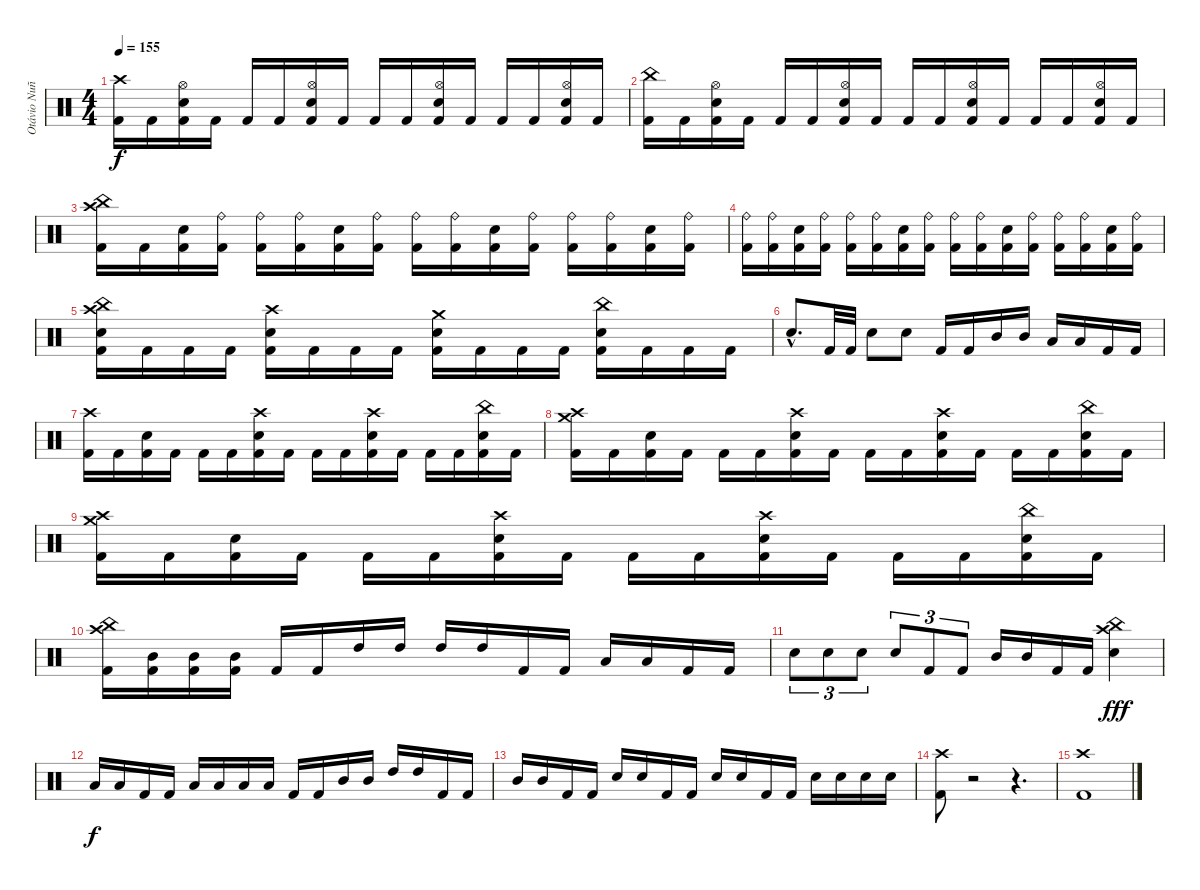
\track ("Otávio Nuñez" "Otávio Nuñ") {instrument percussion}
\staff {score}
\articulation defaults
\ts (4 4)
\tempo 155
\clef neutral
\ks c
("Crash high (hit)" "Kick (hit) 2").16{dy f} "Kick (hit) 2".16 ("Hi-Hat (open)" "Electric Snare (hit)" "Kick (hit) 2").16 "Kick (hit) 2".16 "Kick (hit) 2".16 "Kick (hit) 2".16 ("Hi-Hat (open)" "Electric Snare (hit)" "Kick (hit) 2").16 "Kick (hit) 2".16 "Kick (hit) 2".16 "Kick (hit) 2".16 ("Hi-Hat (open)" "Electric Snare (hit)" "Kick (hit) 2").16 "Kick (hit) 2".16 "Kick (hit) 2".16 "Kick (hit) 2".16 ("Hi-Hat (open)" "Electric Snare (hit)" "Kick (hit) 2").16 "Kick (hit) 2".16 |
("China (hit)" "Kick (hit) 2").16 "Kick (hit) 2".16 ("Hi-Hat (open)" "Electric Snare (hit)" "Kick (hit) 2").16 "Kick (hit) 2".16 "Kick (hit) 2".16 "Kick (hit) 2".16 ("Hi-Hat (open)" "Electric Snare (hit)" "Kick (hit) 2").16 "Kick (hit) 2".16 "Kick (hit) 2".16 "Kick (hit) 2".16 ("Hi-Hat (open)" "Electric Snare (hit)" "Kick (hit) 2").16 "Kick (hit) 2".16 "Kick (hit) 2".16 "Kick (hit) 2".16 ("Hi-Hat (open)" "Electric Snare (hit)" "Kick (hit) 2").16 "Kick (hit) 2".16 |
("China (hit)" "Crash high (hit)" "Kick (hit) 2").16 "Kick (hit) 2".16 ("Electric Snare (hit)" "Kick (hit) 2").16 ("Ride (bell)" "Kick (hit) 2").16 ("Ride (bell)" "Kick (hit) 2").16 ("Ride (bell)" "Kick (hit) 2").16 ("Electric Snare (hit)" "Kick (hit) 2").16 ("Ride (bell)" "Kick (hit) 2").16 ("Ride (bell)" "Kick (hit) 2").16 ("Ride (bell)" "Kick (hit) 2").16 ("Electric Snare (hit)" "Kick (hit) 2").16 ("Ride (bell)" "Kick (hit) 2").16 ("Ride (bell)" "Kick (hit) 2").16 ("Ride (bell)" "Kick (hit) 2").16 ("Electric Snare (hit)" "Kick (hit) 2").16 ("Ride (bell)" "Kick (hit) 2").16 |
("Ride (bell)" "Kick (hit) 2").16 ("Ride (bell)" "Kick (hit) 2").16 ("Electric Snare (hit)" "Kick (hit) 2").16 ("Ride (bell)" "Kick (hit) 2").16 ("Ride (bell)" "Kick (hit) 2").16 ("Ride (bell)" "Kick (hit) 2").16 ("Electric Snare (hit)" "Kick (hit) 2").16 ("Ride (bell)" "Kick (hit) 2").16 ("Ride (bell)" "Kick (hit) 2").16 ("Ride (bell)" "Kick (hit) 2").16 ("Electric Snare (hit)" "Kick (hit) 2").16 ("Ride (bell)" "Kick (hit) 2").16 ("Ride (bell)" "Kick (hit) 2").16 ("Ride (bell)" "Kick (hit) 2").16 ("Electric Snare (hit)" "Kick (hit) 2").16 ("Ride (bell)" "Kick (hit) 2").16 |
("Crash high (hit)" "China (hit)" "Electric Snare (hit)" "Kick (hit) 2").16 "Kick (hit) 2".16 "Kick (hit) 2".16 "Kick (hit) 2".16 ("Crash high (hit)" "Electric Snare (hit)" "Kick (hit) 2").16 "Kick (hit) 2".16 "Kick (hit) 2".16 "Kick (hit) 2".16 ("Crash medium (hit)" "Electric Snare (hit)" "Kick (hit) 2").16 "Kick (hit) 2".16 "Kick (hit) 2".16 "Kick (hit) 2".16 ("China (hit)" "Electric Snare (hit)" "Kick (hit) 2").16 "Kick (hit) 2".16 "Kick (hit) 2".16 "Kick (hit) 2".16 |
"Electric Snare (hit)"{hac}.8{d} "Kick (hit) 2".32 "Kick (hit) 2".32 "Electric Snare (hit)".8 "Electric Snare (hit)".8 "Kick (hit) 2".16 "Kick (hit) 2".16 "Mid Tom (hit)".16 "Mid Tom (hit)".16 "Low Tom (hit)".16 "Low Tom (hit)".16 "Kick (hit) 2".16 "Kick (hit) 2".16 |
("Crash high (hit)" "Kick (hit) 2").16 "Kick (hit) 2".16 ("Electric Snare (hit)" "Kick (hit) 2").16 "Kick (hit) 2".16 "Kick (hit) 2".16 "Kick (hit) 2".16 ("Crash high (hit)" "Electric Snare (hit)" "Kick (hit) 2").16 "Kick (hit) 2".16 "Kick (hit) 2".16 "Kick (hit) 2".16 ("Crash high (hit)" "Electric Snare (hit)" "Kick (hit) 2").16 "Kick (hit) 2".16 "Kick (hit) 2".16 "Kick (hit) 2".16 ("China (hit)" "Electric Snare (hit)" "Kick (hit) 2").16 "Kick (hit) 2".16 |
("Crash high (hit)" "Crash medium (hit)" "Kick (hit) 2").16 "Kick (hit) 2".16 ("Electric Snare (hit)" "Kick (hit) 2").16 "Kick (hit) 2".16 "Kick (hit) 2".16 "Kick (hit) 2".16 ("Crash high (hit)" "Electric Snare (hit)" "Kick (hit) 2").16 "Kick (hit) 2".16 "Kick (hit) 2".16 "Kick (hit) 2".16 ("Crash high (hit)" "Electric Snare (hit)" "Kick (hit) 2").16 "Kick (hit) 2".16 "Kick (hit) 2".16 "Kick (hit) 2".16 ("China (hit)" "Electric Snare (hit)" "Kick (hit) 2").16 "Kick (hit) 2".16 |
("Crash high (hit)" "Crash medium (hit)" "Kick (hit) 2").16 "Kick (hit) 2".16 ("Electric Snare (hit)" "Kick (hit) 2").16 "Kick (hit) 2".16 "Kick (hit) 2".16 "Kick (hit) 2".16 ("Crash high (hit)" "Electric Snare (hit)" "Kick (hit) 2").16 "Kick (hit) 2".16 "Kick (hit) 2".16 "Kick (hit) 2".16 ("Crash high (hit)" "Electric Snare (hit)" "Kick (hit) 2").16 "Kick (hit) 2".16 "Kick (hit) 2".16 "Kick (hit) 2".16 ("China (hit)" "Electric Snare (hit)" "Kick (hit) 2").16 "Kick (hit) 2".16 |
("Crash high (hit)" "China (hit)" "Kick (hit) 2").16 ("Mid Tom (hit)" "Kick (hit) 2").16 ("Mid Tom (hit)" "Kick (hit) 2").16 ("Mid Tom (hit)" "Kick (hit) 2").16 "Kick (hit) 2".16 "Kick (hit) 2".16 "High Tom (hit)".16 "High Tom (hit)".16 "High Tom (hit)".16 "High Tom (hit)".16 "Kick (hit) 2".16 "Kick (hit) 2".16 "Low Floor Tom (hit)".16 "Low Floor Tom (hit)".16 "Kick (hit) 2".16 "Kick (hit) 2".16 |
"Electric Snare (hit)".8{tu (3 2)} "Electric Snare (hit)".8{tu (3 2)} "Electric Snare (hit)".8{tu (3 2)} "Electric Snare (hit)".8{tu (3 2)} "Kick (hit) 2".8{tu (3 2)} "Kick (hit) 2".8{tu (3 2)} "Mid Tom (hit)".16 "Mid Tom (hit)".16 "Kick (hit) 2".16 "Kick (hit) 2".16 ("China (hit)" "Crash high (hit)" "Electric Snare (hit)").4{dy fff} |
"Low Floor Tom (hit)".16{dy f} "Low Floor Tom (hit)".16 "Kick (hit) 2".16 "Kick (hit) 2".16 "Low Tom (hit)".16 "Low Tom (hit)".16 "Low Tom (hit)".16 "Low Tom (hit)".16 "Kick (hit) 2".16 "Kick (hit) 2".16 "Mid Tom (hit)".16 "Mid Tom (hit)".16 "High Tom (hit)".16 "High Tom (hit)".16 "Kick (hit) 2".16 "Kick (hit) 2".16 |
"Mid Tom (hit)".16 "Mid Tom (hit)".16 "Kick (hit) 2".16 "Kick (hit) 2".16 "Electric Snare (hit)".16 "Electric Snare (hit)".16 "Kick (hit) 2".16 "Kick (hit) 2".16 "Electric Snare (hit)".16 "Electric Snare (hit)".16 "Kick (hit) 2".16 "Kick (hit) 2".16 "Electric Snare (hit)".16 "Electric Snare (hit)".16 "Electric Snare (hit)".16 "Electric Snare (hit)".16 |
("Crash high (hit)" "Kick (hit) 2").8 r.2 r.4{d} |
("Crash high (hit)" "Kick (hit) 2").1
